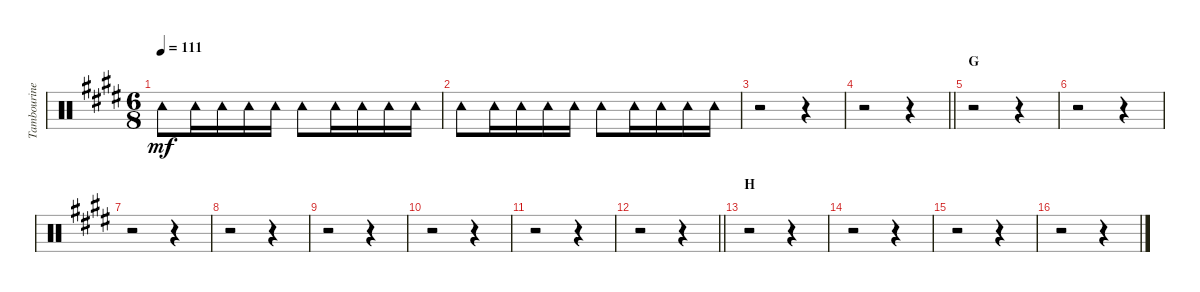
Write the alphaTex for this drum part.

\track ("Tambourine" "Tambourine") {instrument percussion}
\staff {score}
\articulation defaults
\ts (6 8)
\tempo 111
\clef neutral
\ks e "Tambourine (hit)".8{dy mf} "Tambourine (hit)".16 "Tambourine (hit)".16 "Tambourine (hit)".16 "Tambourine (hit)".16 "Tambourine (hit)".8 "Tambourine (hit)".16 "Tambourine (hit)".16 "Tambourine (hit)".16 "Tambourine (hit)".16
|
"Tambourine (hit)".8 "Tambourine (hit)".16 "Tambourine (hit)".16 "Tambourine (hit)".16 "Tambourine (hit)".16 "Tambourine (hit)".8 "Tambourine (hit)".16 "Tambourine (hit)".16 "Tambourine (hit)".16 "Tambourine (hit)".16 |
r.2 r.4 |
\barLineRight lightlight
r.2 r.4 |
\section ("" "G")
r.2 r.4 |
r.2 r.4 |
r.2 r.4 |
r.2 r.4 |
r.2 r.4 |
r.2 r.4 |
r.2 r.4 |
\barLineRight lightlight
r.2 r.4 |
\section ("" "H")
r.2 r.4 |
r.2 r.4 |
r.2 r.4 |
r.2 r.4
